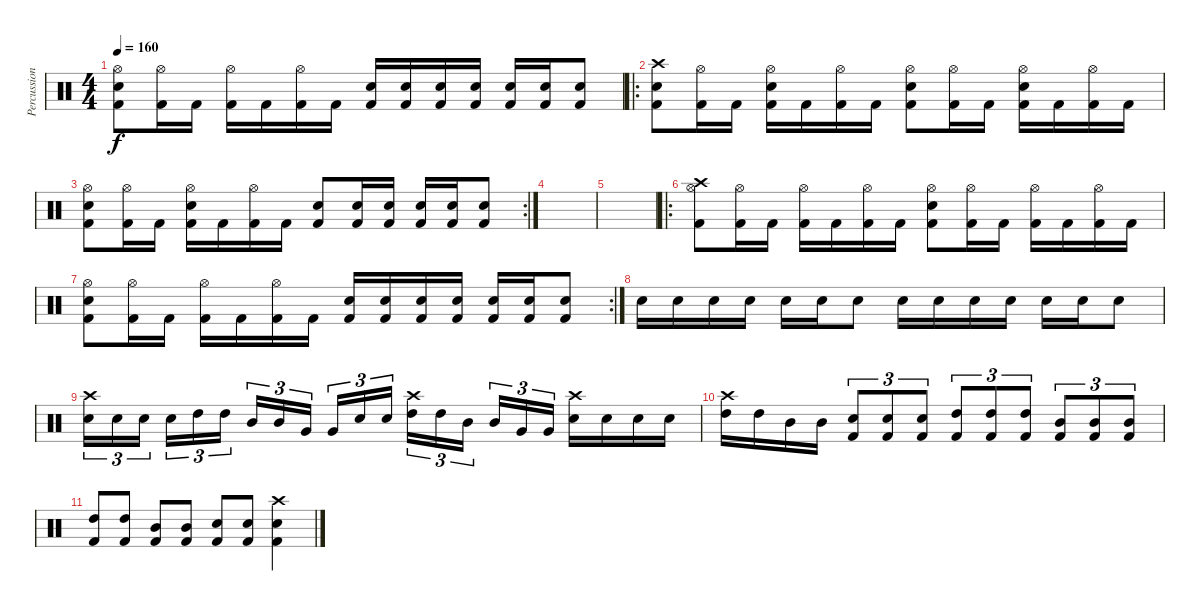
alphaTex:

\track ("Percussion" "Percussion") {instrument percussion}
\staff {score}
\articulation defaults
\ts (4 4)
\tempo 160
\clef neutral
\ks c
("Hi-Hat (open)" "Electric Snare (hit)" "Kick (hit) 2").8{dy f} ("Hi-Hat (open)" "Kick (hit) 2").16 "Kick (hit) 2".16 ("Hi-Hat (open)" "Kick (hit) 2").16 "Kick (hit) 2".16 ("Hi-Hat (open)" "Kick (hit) 2").16 "Kick (hit) 2".16 ("Electric Snare (hit)" "Kick (hit) 2").16 ("Electric Snare (hit)" "Kick (hit) 2").16 ("Electric Snare (hit)" "Kick (hit) 2").16 ("Electric Snare (hit)" "Kick (hit) 2").16 ("Electric Snare (hit)" "Kick (hit) 2").16 ("Electric Snare (hit)" "Kick (hit) 2").16 ("Electric Snare (hit)" "Kick (hit) 2").8 |
\ro
("Crash high (hit)" "Electric Snare (hit)" "Kick (hit) 2").8 ("Hi-Hat (open)" "Kick (hit) 2").16 "Kick (hit) 2".16 ("Hi-Hat (open)" "Electric Snare (hit)" "Kick (hit) 2").16 "Kick (hit) 2".16 ("Hi-Hat (open)" "Kick (hit) 2").16 "Kick (hit) 2".16 ("Hi-Hat (open)" "Electric Snare (hit)" "Kick (hit) 2").8 ("Hi-Hat (open)" "Kick (hit) 2").16 "Kick (hit) 2".16 ("Hi-Hat (open)" "Electric Snare (hit)" "Kick (hit) 2").16 "Kick (hit) 2".16 ("Hi-Hat (open)" "Kick (hit) 2").16 "Kick (hit) 2".16 |
\rc 2
("Hi-Hat (open)" "Electric Snare (hit)" "Kick (hit) 2").8 ("Hi-Hat (open)" "Kick (hit) 2").16 "Kick (hit) 2".16 ("Hi-Hat (open)" "Electric Snare (hit)" "Kick (hit) 2").16 "Kick (hit) 2".16 ("Hi-Hat (open)" "Kick (hit) 2").16 "Kick (hit) 2".16 ("Electric Snare (hit)" "Kick (hit) 2").8 ("Electric Snare (hit)" "Kick (hit) 2").16 ("Electric Snare (hit)" "Kick (hit) 2").16 ("Electric Snare (hit)" "Kick (hit) 2").16 ("Electric Snare (hit)" "Kick (hit) 2").16 ("Electric Snare (hit)" "Kick (hit) 2").8 |
|
|
\ro
("Crash high (hit)" "Hi-Hat (open)" "Kick (hit) 2").8 ("Hi-Hat (open)" "Kick (hit) 2").16 "Kick (hit) 2".16 ("Hi-Hat (open)" "Kick (hit) 2").16 "Kick (hit) 2".16 ("Hi-Hat (open)" "Kick (hit) 2").16 "Kick (hit) 2".16 ("Hi-Hat (open)" "Electric Snare (hit)" "Kick (hit) 2").8 ("Hi-Hat (open)" "Kick (hit) 2").16 "Kick (hit) 2".16 ("Hi-Hat (open)" "Kick (hit) 2").16 "Kick (hit) 2".16 ("Hi-Hat (open)" "Kick (hit) 2").16 "Kick (hit) 2".16 |
\rc 2
("Hi-Hat (open)" "Electric Snare (hit)" "Kick (hit) 2").8 ("Hi-Hat (open)" "Kick (hit) 2").16 "Kick (hit) 2".16 ("Hi-Hat (open)" "Kick (hit) 2").16 "Kick (hit) 2".16 ("Hi-Hat (open)" "Kick (hit) 2").16 "Kick (hit) 2".16 ("Electric Snare (hit)" "Kick (hit) 2").16 ("Electric Snare (hit)" "Kick (hit) 2").16 ("Electric Snare (hit)" "Kick (hit) 2").16 ("Electric Snare (hit)" "Kick (hit) 2").16 ("Electric Snare (hit)" "Kick (hit) 2").16 ("Electric Snare (hit)" "Kick (hit) 2").16 ("Electric Snare (hit)" "Kick (hit) 2").8 |
"Electric Snare (hit)".16 "Electric Snare (hit)".16 "Electric Snare (hit)".16 "Electric Snare (hit)".16 "Electric Snare (hit)".16 "Electric Snare (hit)".16 "Electric Snare (hit)".8 "Electric Snare (hit)".16 "Electric Snare (hit)".16 "Electric Snare (hit)".16 "Electric Snare (hit)".16 "Electric Snare (hit)".16 "Electric Snare (hit)".16 "Electric Snare (hit)".8 |
("Crash high (hit)" "Electric Snare (hit)").16{tu (3 2)} "Electric Snare (hit)".16{tu (3 2)} "Electric Snare (hit)".16{tu (3 2)} "Electric Snare (hit)".16{tu (3 2)} "High Tom (hit)".16{tu (3 2)} "High Tom (hit)".16{tu (3 2)} "Mid Tom (hit)".16{tu (3 2)} "Mid Tom (hit)".16{tu (3 2)} "Very Low Tom (hit)".16{tu (3 2)} "Very Low Tom (hit)".16{tu (3 2)} "Electric Snare (hit)".16{tu (3 2)} "Electric Snare (hit)".16{tu (3 2)} ("Crash high (hit)" "High Tom (hit)").16{tu (3 2)} "High Tom (hit)".16{tu (3 2)} "Mid Tom (hit)".16{tu (3 2)} "Mid Tom (hit)".16{tu (3 2)} "Very Low Tom (hit)".16{tu (3 2)} "Very Low Tom (hit)".16{tu (3 2)} ("Crash high (hit)" "Electric Snare (hit)").16 "Electric Snare (hit)".16 "Electric Snare (hit)".16 "Electric Snare (hit)".16 |
("Crash high (hit)" "High Tom (hit)").16 "High Tom (hit)".16 "Mid Tom (hit)".16 "Mid Tom (hit)".16 ("Electric Snare (hit)" "Kick (hit) 2").8{tu (3 2)} ("Electric Snare (hit)" "Kick (hit) 2").8{tu (3 2)} ("Electric Snare (hit)" "Kick (hit) 2").8{tu (3 2)} ("High Tom (hit)" "Kick (hit) 2").8{tu (3 2)} ("High Tom (hit)" "Kick (hit) 2").8{tu (3 2)} ("High Tom (hit)" "Kick (hit) 2").8{tu (3 2)} ("Mid Tom (hit)" "Kick (hit) 2").8{tu (3 2)} ("Mid Tom (hit)" "Kick (hit) 2").8{tu (3 2)} ("Mid Tom (hit)" "Kick (hit) 2").8{tu (3 2)} |
("High Tom (hit)" "Kick (hit) 2").8 ("High Tom (hit)" "Kick (hit) 2").8 ("Mid Tom (hit)" "Kick (hit) 2").8 ("Mid Tom (hit)" "Kick (hit) 2").8 ("Electric Snare (hit)" "Kick (hit) 2").8 ("Electric Snare (hit)" "Kick (hit) 2").8 ("Crash high (hit)" "Electric Snare (hit)" "Kick (hit) 2").4
